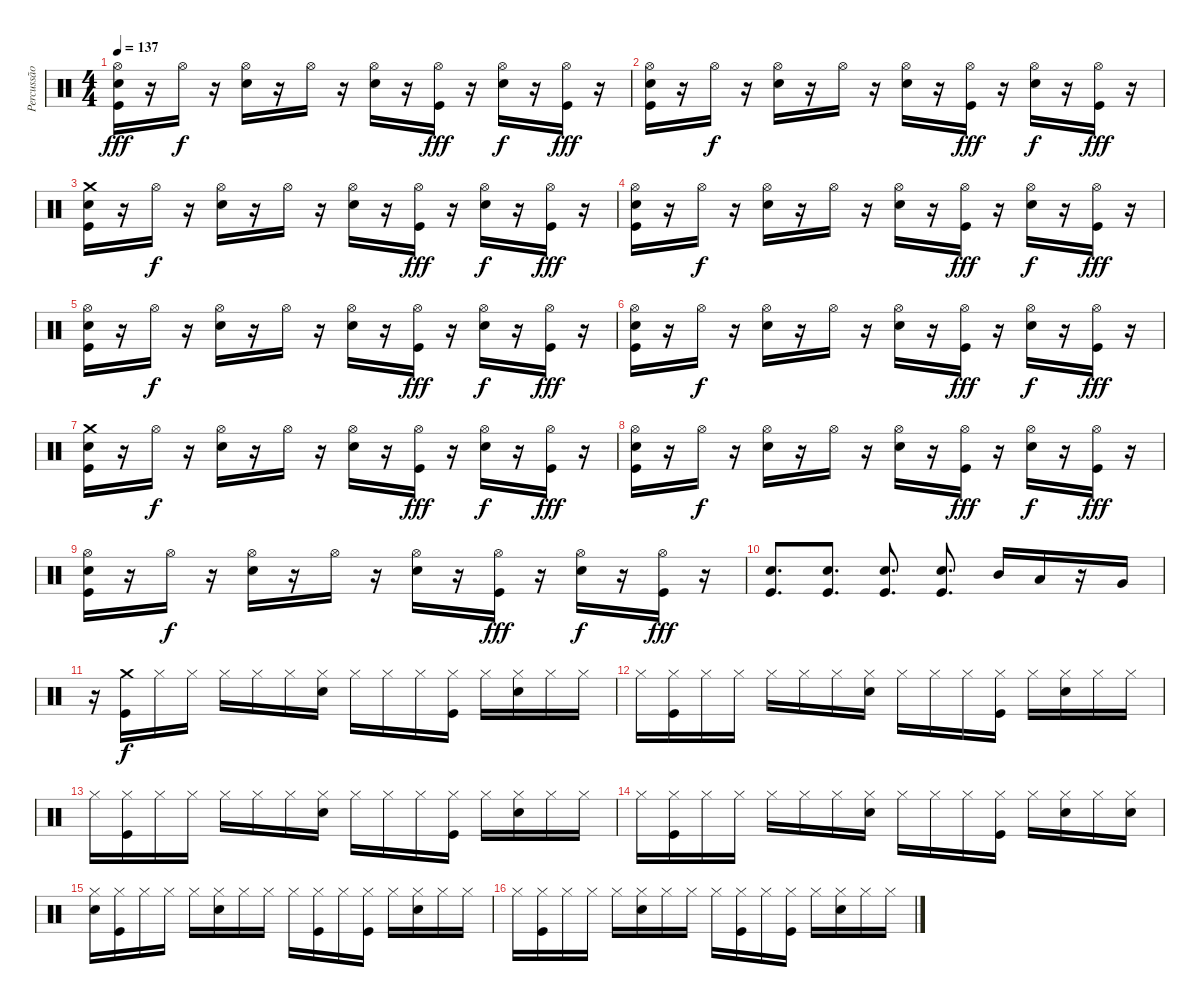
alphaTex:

\track ("Percussão" "Percussão") {instrument percussion}
\staff {score}
\articulation defaults
\ts (4 4)
\tempo 137
\clef neutral
\ks c
("Hi-Hat (open)" "Snare (hit) 2" "Kick (hit)").16{dy fff} r.16 "Hi-Hat (open)".16{dy f} r.16 ("Snare (hit) 2" "Hi-Hat (open)").16 r.16 "Hi-Hat (open)".16 r.16 ("Snare (hit) 2" "Hi-Hat (open)").16 r.16 ("Kick (hit)" "Hi-Hat (open)").16{dy fff} r.16 ("Hi-Hat (open)" "Snare (hit) 2").16{dy f} r.16 ("Hi-Hat (open)" "Kick (hit)").16{dy fff} r.16 |
("Hi-Hat (open)" "Snare (hit) 2" "Kick (hit)").16 r.16 "Hi-Hat (open)".16{dy f} r.16 ("Snare (hit) 2" "Hi-Hat (open)").16 r.16 "Hi-Hat (open)".16 r.16 ("Snare (hit) 2" "Hi-Hat (open)").16 r.16 ("Kick (hit)" "Hi-Hat (open)").16{dy fff} r.16 ("Hi-Hat (open)" "Snare (hit) 2").16{dy f} r.16 ("Hi-Hat (open)" "Kick (hit)").16{dy fff} r.16 |
("Crash medium (hit)" "Snare (hit) 2" "Kick (hit)").16 r.16 "Hi-Hat (open)".16{dy f} r.16 ("Snare (hit) 2" "Hi-Hat (open)").16 r.16 "Hi-Hat (open)".16 r.16 ("Snare (hit) 2" "Hi-Hat (open)").16 r.16 ("Kick (hit)" "Hi-Hat (open)").16{dy fff} r.16 ("Hi-Hat (open)" "Snare (hit) 2").16{dy f} r.16 ("Hi-Hat (open)" "Kick (hit)").16{dy fff} r.16 |
("Hi-Hat (open)" "Snare (hit) 2" "Kick (hit)").16 r.16 "Hi-Hat (open)".16{dy f} r.16 ("Snare (hit) 2" "Hi-Hat (open)").16 r.16 "Hi-Hat (open)".16 r.16 ("Snare (hit) 2" "Hi-Hat (open)").16 r.16 ("Kick (hit)" "Hi-Hat (open)").16{dy fff} r.16 ("Hi-Hat (open)" "Snare (hit) 2").16{dy f} r.16 ("Hi-Hat (open)" "Kick (hit)").16{dy fff} r.16 |
("Hi-Hat (open)" "Snare (hit) 2" "Kick (hit)").16 r.16 "Hi-Hat (open)".16{dy f} r.16 ("Snare (hit) 2" "Hi-Hat (open)").16 r.16 "Hi-Hat (open)".16 r.16 ("Snare (hit) 2" "Hi-Hat (open)").16 r.16 ("Kick (hit)" "Hi-Hat (open)").16{dy fff} r.16 ("Hi-Hat (open)" "Snare (hit) 2").16{dy f} r.16 ("Hi-Hat (open)" "Kick (hit)").16{dy fff} r.16 |
("Hi-Hat (open)" "Snare (hit) 2" "Kick (hit)").16 r.16 "Hi-Hat (open)".16{dy f} r.16 ("Snare (hit) 2" "Hi-Hat (open)").16 r.16 "Hi-Hat (open)".16 r.16 ("Snare (hit) 2" "Hi-Hat (open)").16 r.16 ("Kick (hit)" "Hi-Hat (open)").16{dy fff} r.16 ("Hi-Hat (open)" "Snare (hit) 2").16{dy f} r.16 ("Hi-Hat (open)" "Kick (hit)").16{dy fff} r.16 |
("Crash medium (hit)" "Snare (hit) 2" "Kick (hit)").16 r.16 "Hi-Hat (open)".16{dy f} r.16 ("Snare (hit) 2" "Hi-Hat (open)").16 r.16 "Hi-Hat (open)".16 r.16 ("Snare (hit) 2" "Hi-Hat (open)").16 r.16 ("Kick (hit)" "Hi-Hat (open)").16{dy fff} r.16 ("Hi-Hat (open)" "Snare (hit) 2").16{dy f} r.16 ("Hi-Hat (open)" "Kick (hit)").16{dy fff} r.16 |
("Hi-Hat (open)" "Snare (hit) 2" "Kick (hit)").16 r.16 "Hi-Hat (open)".16{dy f} r.16 ("Snare (hit) 2" "Hi-Hat (open)").16 r.16 "Hi-Hat (open)".16 r.16 ("Snare (hit) 2" "Hi-Hat (open)").16 r.16 ("Kick (hit)" "Hi-Hat (open)").16{dy fff} r.16 ("Hi-Hat (open)" "Snare (hit) 2").16{dy f} r.16 ("Hi-Hat (open)" "Kick (hit)").16{dy fff} r.16 |
("Hi-Hat (open)" "Snare (hit) 2" "Kick (hit)").16 r.16 "Hi-Hat (open)".16{dy f} r.16 ("Snare (hit) 2" "Hi-Hat (open)").16 r.16 "Hi-Hat (open)".16 r.16 ("Snare (hit) 2" "Hi-Hat (open)").16 r.16 ("Kick (hit)" "Hi-Hat (open)").16{dy fff} r.16 ("Hi-Hat (open)" "Snare (hit) 2").16{dy f} r.16 ("Hi-Hat (open)" "Kick (hit)").16{dy fff} r.16 |
("Snare (hit) 2" "Kick (hit)").8{d} ("Snare (hit) 2" "Kick (hit)").8{d} ("Snare (hit) 2" "Kick (hit)").8{d} ("Snare (hit) 2" "Kick (hit)").8{d} "Mid Tom (hit)".16 "Low Tom (hit)".16 r.16 "Very Low Tom (hit)".16 |
r.16 ("Crash medium (hit)" "Kick (hit)").16{dy f} "Hi-Hat (closed)".16 "Hi-Hat (closed)".16 "Hi-Hat (closed)".16 "Hi-Hat (closed)".16 "Hi-Hat (closed)".16 ("Hi-Hat (closed)" "Snare (hit) 2").16 "Hi-Hat (closed)".16 "Hi-Hat (closed)".16 "Hi-Hat (closed)".16 ("Hi-Hat (closed)" "Kick (hit)").16 "Hi-Hat (closed)".16 ("Hi-Hat (closed)" "Snare (hit) 2").16 "Hi-Hat (closed)".16 "Hi-Hat (closed)".16 |
"Hi-Hat (closed)".16 ("Kick (hit)" "Hi-Hat (closed)").16 "Hi-Hat (closed)".16 "Hi-Hat (closed)".16 "Hi-Hat (closed)".16 "Hi-Hat (closed)".16 "Hi-Hat (closed)".16 ("Hi-Hat (closed)" "Snare (hit) 2").16 "Hi-Hat (closed)".16 "Hi-Hat (closed)".16 "Hi-Hat (closed)".16 ("Hi-Hat (closed)" "Kick (hit)").16 "Hi-Hat (closed)".16 ("Hi-Hat (closed)" "Snare (hit) 2").16 "Hi-Hat (closed)".16 "Hi-Hat (closed)".16 |
"Hi-Hat (closed)".16 ("Kick (hit)" "Hi-Hat (closed)").16 "Hi-Hat (closed)".16 "Hi-Hat (closed)".16 "Hi-Hat (closed)".16 "Hi-Hat (closed)".16 "Hi-Hat (closed)".16 ("Hi-Hat (closed)" "Snare (hit) 2").16 "Hi-Hat (closed)".16 "Hi-Hat (closed)".16 "Hi-Hat (closed)".16 ("Hi-Hat (closed)" "Kick (hit)").16 "Hi-Hat (closed)".16 ("Hi-Hat (closed)" "Snare (hit) 2").16 "Hi-Hat (closed)".16 "Hi-Hat (closed)".16 |
"Hi-Hat (closed)".16 ("Kick (hit)" "Hi-Hat (closed)").16 "Hi-Hat (closed)".16 "Hi-Hat (closed)".16 "Hi-Hat (closed)".16 "Hi-Hat (closed)".16 "Hi-Hat (closed)".16 ("Hi-Hat (closed)" "Snare (hit) 2").16 "Hi-Hat (closed)".16 "Hi-Hat (closed)".16 "Hi-Hat (closed)".16 ("Hi-Hat (closed)" "Kick (hit)").16 "Hi-Hat (closed)".16 ("Hi-Hat (closed)" "Snare (hit) 2").16 "Hi-Hat (closed)".16 ("Hi-Hat (closed)" "Snare (hit) 2").16 |
("Snare (hit) 2" "Hi-Hat (closed)").16 ("Hi-Hat (closed)" "Kick (hit)").16 "Hi-Hat (closed)".16 "Hi-Hat (closed)".16 "Hi-Hat (closed)".16 ("Hi-Hat (closed)" "Snare (hit) 2").16 "Hi-Hat (closed)".16 "Hi-Hat (closed)".16 "Hi-Hat (closed)".16 ("Hi-Hat (closed)" "Kick (hit)").16 "Hi-Hat (closed)".16 ("Hi-Hat (closed)" "Kick (hit)").16 "Hi-Hat (closed)".16 ("Hi-Hat (closed)" "Snare (hit) 2").16 "Hi-Hat (closed)".16 "Hi-Hat (closed)".16 |
"Hi-Hat (closed)".16 ("Hi-Hat (closed)" "Kick (hit)").16 "Hi-Hat (closed)".16 "Hi-Hat (closed)".16 "Hi-Hat (closed)".16 ("Hi-Hat (closed)" "Snare (hit) 2").16 "Hi-Hat (closed)".16 "Hi-Hat (closed)".16 "Hi-Hat (closed)".16 ("Hi-Hat (closed)" "Kick (hit)").16 "Hi-Hat (closed)".16 ("Hi-Hat (closed)" "Kick (hit)").16 "Hi-Hat (closed)".16 ("Hi-Hat (closed)" "Snare (hit) 2").16 "Hi-Hat (closed)".16 "Hi-Hat (closed)".16
